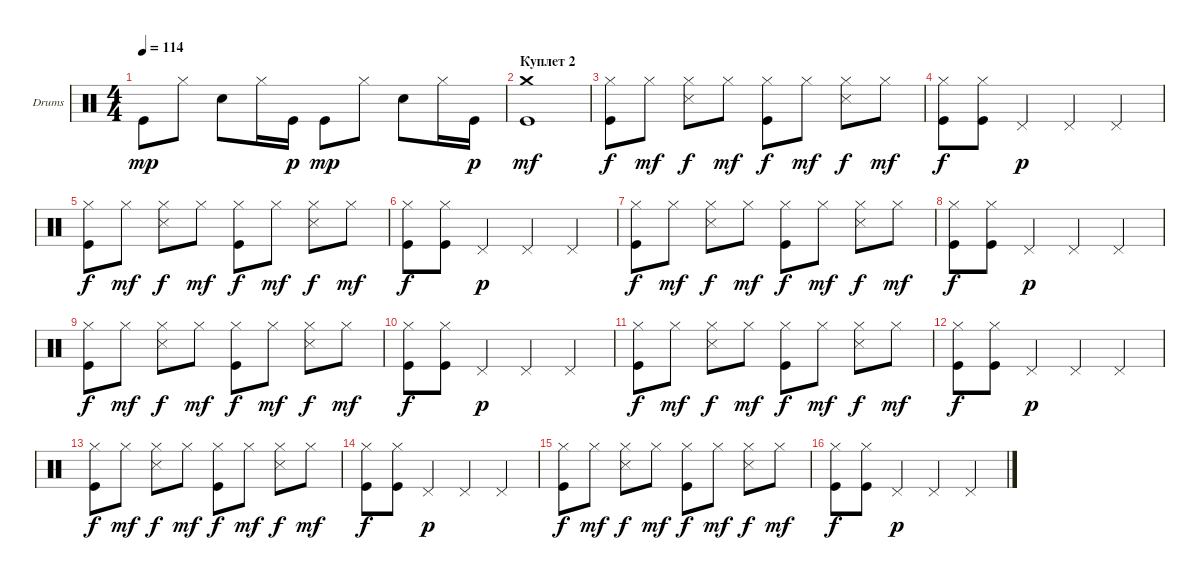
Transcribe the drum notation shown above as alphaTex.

\defaultSystemsLayout 4
\bracketExtendMode groupsimilarinstruments
\firstSystemTrackNameOrientation horizontal
\otherSystemsTrackNameOrientation horizontal
\track ("Е. Кулаков" "Drums") {instrument percussion}
\staff {score}
\articulation defaults
\ts (4 4)
\tempo 114
\clef neutral
\ks c "Kick (hit)".8{dy mp} "Hi-Hat (closed)".8 "Snare (hit) 2".8 "Hi-Hat (closed)".16 "Kick (hit)".16{dy p} "Kick (hit)".8{dy mp} "Hi-Hat (closed)".8 "Snare (hit) 2".8 "Hi-Hat (closed)".16 "Kick (hit)".16{dy p}
|
\section ("" "Куплет 2")
("Kick (hit)" "Crash medium (hit)").1{dy mf} |
("Hi-Hat (closed)" "Kick (hit)").8{dy f} "Hi-Hat (closed)".8{dy mf} ("Hi-Hat (closed)" "Snare (side stick) 3").8{dy f} "Hi-Hat (closed)".8{dy mf} ("Hi-Hat (closed)" "Kick (hit)").8{dy f} "Hi-Hat (closed)".8{dy mf} ("Hi-Hat (closed)" "Snare (side stick) 3").8{dy f} "Hi-Hat (closed)".8{dy mf} |
("Hi-Hat (closed)" "Kick (hit)").8{dy f} ("Hi-Hat (closed)" "Kick (hit)").8 "Pedal Hi-Hat (hit)".4{dy p} "Pedal Hi-Hat (hit)".4 "Pedal Hi-Hat (hit)".4 |
("Hi-Hat (closed)" "Kick (hit)").8{dy f} "Hi-Hat (closed)".8{dy mf} ("Hi-Hat (closed)" "Snare (side stick) 3").8{dy f} "Hi-Hat (closed)".8{dy mf} ("Hi-Hat (closed)" "Kick (hit)").8{dy f} "Hi-Hat (closed)".8{dy mf} ("Hi-Hat (closed)" "Snare (side stick) 3").8{dy f} "Hi-Hat (closed)".8{dy mf} |
("Hi-Hat (closed)" "Kick (hit)").8{dy f} ("Hi-Hat (closed)" "Kick (hit)").8 "Pedal Hi-Hat (hit)".4{dy p} "Pedal Hi-Hat (hit)".4 "Pedal Hi-Hat (hit)".4 |
("Hi-Hat (closed)" "Kick (hit)").8{dy f} "Hi-Hat (closed)".8{dy mf} ("Hi-Hat (closed)" "Snare (side stick) 3").8{dy f} "Hi-Hat (closed)".8{dy mf} ("Hi-Hat (closed)" "Kick (hit)").8{dy f} "Hi-Hat (closed)".8{dy mf} ("Hi-Hat (closed)" "Snare (side stick) 3").8{dy f} "Hi-Hat (closed)".8{dy mf} |
("Hi-Hat (closed)" "Kick (hit)").8{dy f} ("Hi-Hat (closed)" "Kick (hit)").8 "Pedal Hi-Hat (hit)".4{dy p} "Pedal Hi-Hat (hit)".4 "Pedal Hi-Hat (hit)".4 |
("Hi-Hat (closed)" "Kick (hit)").8{dy f} "Hi-Hat (closed)".8{dy mf} ("Hi-Hat (closed)" "Snare (side stick) 3").8{dy f} "Hi-Hat (closed)".8{dy mf} ("Hi-Hat (closed)" "Kick (hit)").8{dy f} "Hi-Hat (closed)".8{dy mf} ("Hi-Hat (closed)" "Snare (side stick) 3").8{dy f} "Hi-Hat (closed)".8{dy mf} |
("Hi-Hat (closed)" "Kick (hit)").8{dy f} ("Hi-Hat (closed)" "Kick (hit)").8 "Pedal Hi-Hat (hit)".4{dy p} "Pedal Hi-Hat (hit)".4 "Pedal Hi-Hat (hit)".4 |
("Hi-Hat (closed)" "Kick (hit)").8{dy f} "Hi-Hat (closed)".8{dy mf} ("Hi-Hat (closed)" "Snare (side stick) 3").8{dy f} "Hi-Hat (closed)".8{dy mf} ("Hi-Hat (closed)" "Kick (hit)").8{dy f} "Hi-Hat (closed)".8{dy mf} ("Hi-Hat (closed)" "Snare (side stick) 3").8{dy f} "Hi-Hat (closed)".8{dy mf} |
("Hi-Hat (closed)" "Kick (hit)").8{dy f} ("Hi-Hat (closed)" "Kick (hit)").8 "Pedal Hi-Hat (hit)".4{dy p} "Pedal Hi-Hat (hit)".4 "Pedal Hi-Hat (hit)".4 |
("Hi-Hat (closed)" "Kick (hit)").8{dy f} "Hi-Hat (closed)".8{dy mf} ("Hi-Hat (closed)" "Snare (side stick) 3").8{dy f} "Hi-Hat (closed)".8{dy mf} ("Hi-Hat (closed)" "Kick (hit)").8{dy f} "Hi-Hat (closed)".8{dy mf} ("Hi-Hat (closed)" "Snare (side stick) 3").8{dy f} "Hi-Hat (closed)".8{dy mf} |
("Hi-Hat (closed)" "Kick (hit)").8{dy f} ("Hi-Hat (closed)" "Kick (hit)").8 "Pedal Hi-Hat (hit)".4{dy p} "Pedal Hi-Hat (hit)".4 "Pedal Hi-Hat (hit)".4 |
("Hi-Hat (closed)" "Kick (hit)").8{dy f} "Hi-Hat (closed)".8{dy mf} ("Hi-Hat (closed)" "Snare (side stick) 3").8{dy f} "Hi-Hat (closed)".8{dy mf} ("Hi-Hat (closed)" "Kick (hit)").8{dy f} "Hi-Hat (closed)".8{dy mf} ("Hi-Hat (closed)" "Snare (side stick) 3").8{dy f} "Hi-Hat (closed)".8{dy mf} |
("Hi-Hat (closed)" "Kick (hit)").8{dy f} ("Hi-Hat (closed)" "Kick (hit)").8 "Pedal Hi-Hat (hit)".4{dy p} "Pedal Hi-Hat (hit)".4 "Pedal Hi-Hat (hit)".4
